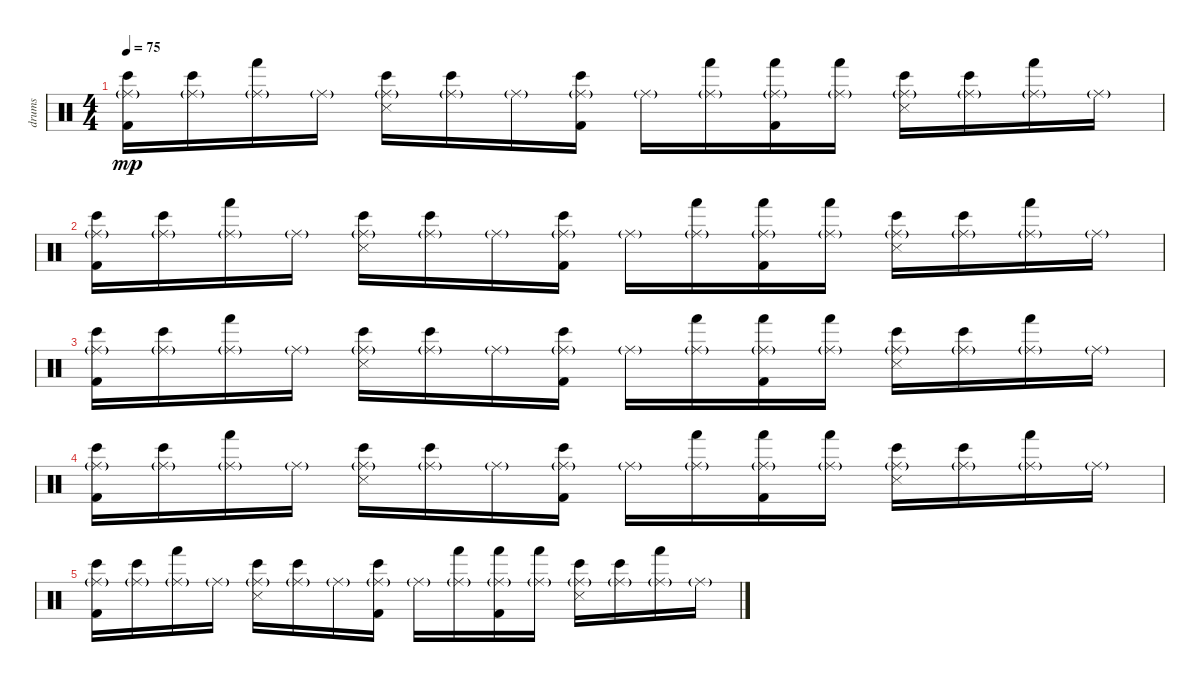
\track ("drums" "drums") {instrument percussion}
\staff {score}
\articulation defaults
\ts (4 4)
\tempo 75
\clef neutral
\ks c
("Kick (hit) 2" "Bongo High (hit)" "Ride (middle)"{g}).16{dy mp} ("Bongo High (hit)" "Ride (middle)"{g}).16 ("Hand (hit)" "Ride (middle)"{g}).16 "Ride (middle)"{g}.16 ("Snare (side stick) 3" "Bongo High (hit)" "Ride (middle)"{g}).16 ("Bongo High (hit)" "Ride (middle)"{g}).16 "Ride (middle)"{g}.16 ("Kick (hit) 2" "Bongo High (hit)" "Ride (middle)"{g}).16 "Ride (middle)"{g}.16 ("Hand (hit)" "Ride (middle)"{g}).16 ("Kick (hit) 2" "Hand (hit)" "Ride (middle)"{g}).16 ("Hand (hit)" "Ride (middle)"{g}).16 ("Snare (side stick) 3" "Bongo High (hit)" "Ride (middle)"{g}).16 ("Bongo High (hit)" "Ride (middle)"{g}).16 ("Hand (hit)" "Ride (middle)"{g}).16 "Ride (middle)"{g}.16 |
("Kick (hit) 2" "Bongo High (hit)" "Ride (middle)"{g}).16 ("Bongo High (hit)" "Ride (middle)"{g}).16 ("Hand (hit)" "Ride (middle)"{g}).16 "Ride (middle)"{g}.16 ("Snare (side stick) 3" "Bongo High (hit)" "Ride (middle)"{g}).16 ("Bongo High (hit)" "Ride (middle)"{g}).16 "Ride (middle)"{g}.16 ("Kick (hit) 2" "Bongo High (hit)" "Ride (middle)"{g}).16 "Ride (middle)"{g}.16 ("Hand (hit)" "Ride (middle)"{g}).16 ("Kick (hit) 2" "Hand (hit)" "Ride (middle)"{g}).16 ("Hand (hit)" "Ride (middle)"{g}).16 ("Snare (side stick) 3" "Bongo High (hit)" "Ride (middle)"{g}).16 ("Bongo High (hit)" "Ride (middle)"{g}).16 ("Hand (hit)" "Ride (middle)"{g}).16 "Ride (middle)"{g}.16 |
("Kick (hit) 2" "Bongo High (hit)" "Ride (middle)"{g}).16 ("Bongo High (hit)" "Ride (middle)"{g}).16 ("Hand (hit)" "Ride (middle)"{g}).16 "Ride (middle)"{g}.16 ("Snare (side stick) 3" "Bongo High (hit)" "Ride (middle)"{g}).16 ("Bongo High (hit)" "Ride (middle)"{g}).16 "Ride (middle)"{g}.16 ("Kick (hit) 2" "Bongo High (hit)" "Ride (middle)"{g}).16 "Ride (middle)"{g}.16 ("Hand (hit)" "Ride (middle)"{g}).16 ("Kick (hit) 2" "Hand (hit)" "Ride (middle)"{g}).16 ("Hand (hit)" "Ride (middle)"{g}).16 ("Snare (side stick) 3" "Bongo High (hit)" "Ride (middle)"{g}).16 ("Bongo High (hit)" "Ride (middle)"{g}).16 ("Hand (hit)" "Ride (middle)"{g}).16 "Ride (middle)"{g}.16 |
("Kick (hit) 2" "Bongo High (hit)" "Ride (middle)"{g}).16 ("Bongo High (hit)" "Ride (middle)"{g}).16 ("Hand (hit)" "Ride (middle)"{g}).16 "Ride (middle)"{g}.16 ("Snare (side stick) 3" "Bongo High (hit)" "Ride (middle)"{g}).16 ("Bongo High (hit)" "Ride (middle)"{g}).16 "Ride (middle)"{g}.16 ("Kick (hit) 2" "Bongo High (hit)" "Ride (middle)"{g}).16 "Ride (middle)"{g}.16 ("Hand (hit)" "Ride (middle)"{g}).16 ("Kick (hit) 2" "Hand (hit)" "Ride (middle)"{g}).16 ("Hand (hit)" "Ride (middle)"{g}).16 ("Snare (side stick) 3" "Bongo High (hit)" "Ride (middle)"{g}).16 ("Bongo High (hit)" "Ride (middle)"{g}).16 ("Hand (hit)" "Ride (middle)"{g}).16 "Ride (middle)"{g}.16 |
("Kick (hit) 2" "Bongo High (hit)" "Ride (middle)"{g}).16 ("Bongo High (hit)" "Ride (middle)"{g}).16 ("Hand (hit)" "Ride (middle)"{g}).16 "Ride (middle)"{g}.16 ("Snare (side stick) 3" "Bongo High (hit)" "Ride (middle)"{g}).16 ("Bongo High (hit)" "Ride (middle)"{g}).16 "Ride (middle)"{g}.16 ("Kick (hit) 2" "Bongo High (hit)" "Ride (middle)"{g}).16 "Ride (middle)"{g}.16 ("Hand (hit)" "Ride (middle)"{g}).16 ("Kick (hit) 2" "Hand (hit)" "Ride (middle)"{g}).16 ("Hand (hit)" "Ride (middle)"{g}).16 ("Snare (side stick) 3" "Bongo High (hit)" "Ride (middle)"{g}).16 ("Bongo High (hit)" "Ride (middle)"{g}).16 ("Hand (hit)" "Ride (middle)"{g}).16 "Ride (middle)"{g}.16
